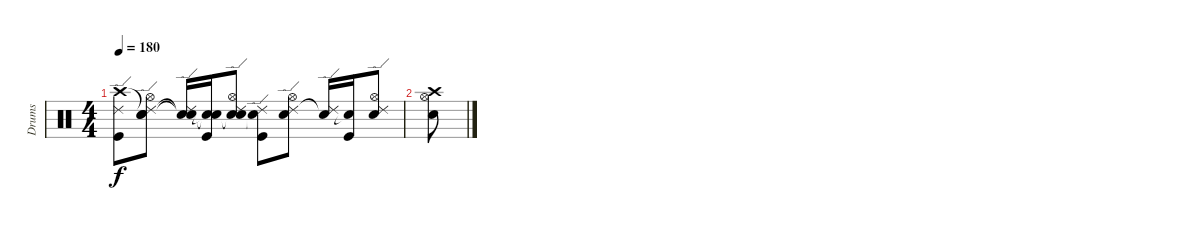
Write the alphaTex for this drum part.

\track ("Drums" "Drums") {instrument percussion}
\staff {score}
\articulation defaults
\ts (4 4)
\tempo 180
\clef neutral
\ks c
("Crash high (hit)" "Ride (edge) 2" "Kick (hit)").8{dy f} ("Snare (hit)"{t} "Hi-Hat (open)" "Ride (edge) 2" "Electric Snare (hit)").8 ("Snare (hit)"{t} "Ride (edge) 2" "Snare (hit)"{t}).16 ("Snare (hit)"{t} "Snare (hit)"{t} "Kick (hit)").16 ("Snare (hit)"{t} "Hi-Hat (open)" "Ride (edge) 2" "Electric Snare (hit)").8 ("Snare (hit)"{t} "Ride (edge) 2" "Kick (hit)").8 ("Hi-Hat (open)" "Ride (edge) 2" "Electric Snare (hit)").8 ("Ride (edge) 2" "Snare (hit)"{t}).16 ("Snare (hit)"{t} "Kick (hit)").16 ("Hi-Hat (open)" "Ride (edge) 2" "Electric Snare (hit)").8 |
("Crash high (hit)" "Hi-Hat (open)" "Electric Snare (hit)").8
